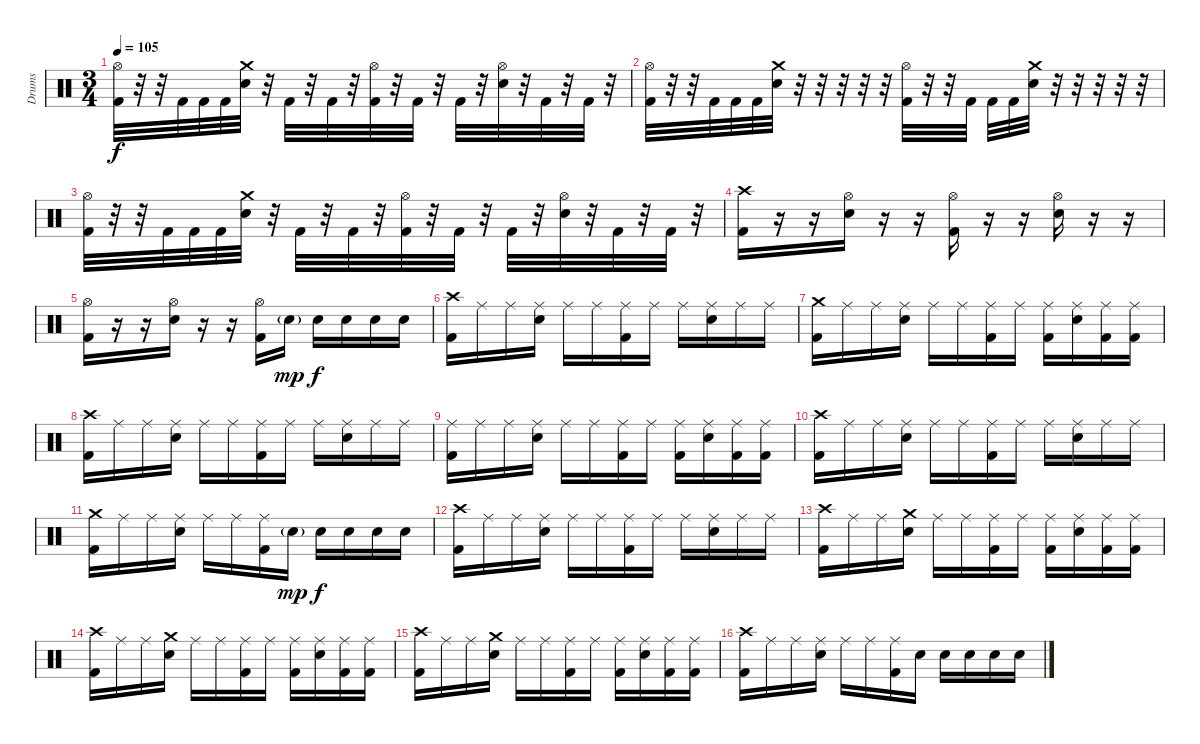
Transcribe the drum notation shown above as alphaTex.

\track ("Drums" "Drums") {instrument percussion}
\staff {score}
\articulation defaults
\ts (3 4)
\tempo 105
\clef neutral
\ks c
("Hi-Hat (open)" "Kick (hit) 2").32{dy f} r.32 r.32 "Kick (hit) 2".32 "Kick (hit) 2".32 "Kick (hit) 2".32 ("Crash medium (hit)" "Snare (hit) 2").32 r.32 "Kick (hit) 2".32 r.32 "Kick (hit) 2".32 r.32 ("Hi-Hat (open)" "Kick (hit) 2").32 r.32 "Kick (hit) 2".32 r.32 "Kick (hit) 2".32 r.32 ("Hi-Hat (open)" "Snare (hit) 2").32 r.32 "Kick (hit) 2".32 r.32 "Kick (hit) 2".32 r.32 |
("Hi-Hat (open)" "Kick (hit) 2").32 r.32 r.32 "Kick (hit) 2".32 "Kick (hit) 2".32 "Kick (hit) 2".32 ("Crash medium (hit)" "Snare (hit) 2").32 r.32 r.32 r.32 r.32 r.32 ("Hi-Hat (open)" "Kick (hit) 2").32 r.32 r.32 "Kick (hit) 2".32 "Kick (hit) 2".32 "Kick (hit) 2".32 ("Crash medium (hit)" "Snare (hit) 2").32 r.32 r.32 r.32 r.32 r.32 |
("Hi-Hat (open)" "Kick (hit) 2").32 r.32 r.32 "Kick (hit) 2".32 "Kick (hit) 2".32 "Kick (hit) 2".32 ("Crash medium (hit)" "Snare (hit) 2").32 r.32 "Kick (hit) 2".32 r.32 "Kick (hit) 2".32 r.32 ("Hi-Hat (open)" "Kick (hit) 2").32 r.32 "Kick (hit) 2".32 r.32 "Kick (hit) 2".32 r.32 ("Hi-Hat (open)" "Snare (hit) 2").32 r.32 "Kick (hit) 2".32 r.32 "Kick (hit) 2".32 r.32 |
("Crash high (hit)" "Kick (hit) 2").16 r.16 r.16 ("Hi-Hat (open)" "Snare (hit) 2").16 r.16 r.16 ("Hi-Hat (open)" "Kick (hit) 2").16 r.16 r.16 ("Hi-Hat (open)" "Snare (hit) 2").16 r.16 r.16 |
("Hi-Hat (open)" "Kick (hit) 2").16 r.16 r.16 ("Hi-Hat (open)" "Snare (hit) 2").16 r.16 r.16 ("Hi-Hat (open)" "Kick (hit) 2").16 "Snare (hit) 2"{g}.16{dy mp} "Snare (hit) 2".16{dy f} "Snare (hit) 2".16 "Snare (hit) 2".16 "Snare (hit) 2".16 |
("Crash high (hit)" "Kick (hit) 2").16 "Ride (middle)".16 "Ride (middle)".16 ("Ride (middle)" "Snare (hit) 2").16 "Ride (middle)".16 "Ride (middle)".16 ("Ride (middle)" "Kick (hit) 2").16 "Ride (middle)".16 "Ride (middle)".16 ("Ride (middle)" "Snare (hit) 2").16 "Ride (middle)".16 "Ride (middle)".16 |
("Crash medium (hit)" "Kick (hit) 2").16 "Ride (middle)".16 "Ride (middle)".16 ("Ride (middle)" "Snare (hit) 2").16 "Ride (middle)".16 "Ride (middle)".16 ("Ride (middle)" "Kick (hit) 2").16 "Ride (middle)".16 ("Ride (middle)" "Kick (hit) 2").16 ("Ride (middle)" "Snare (hit) 2").16 ("Ride (middle)" "Kick (hit) 2").16 ("Ride (middle)" "Kick (hit) 2").16 |
("Crash high (hit)" "Kick (hit) 2").16 "Ride (middle)".16 "Ride (middle)".16 ("Ride (middle)" "Snare (hit) 2").16 "Ride (middle)".16 "Ride (middle)".16 ("Ride (middle)" "Kick (hit) 2").16 "Ride (middle)".16 "Ride (middle)".16 ("Ride (middle)" "Snare (hit) 2").16 "Ride (middle)".16 "Ride (middle)".16 |
("Ride (middle)" "Kick (hit) 2").16 "Ride (middle)".16 "Ride (middle)".16 ("Ride (middle)" "Snare (hit) 2").16 "Ride (middle)".16 "Ride (middle)".16 ("Ride (middle)" "Kick (hit) 2").16 "Ride (middle)".16 ("Ride (middle)" "Kick (hit) 2").16 ("Ride (middle)" "Snare (hit) 2").16 ("Ride (middle)" "Kick (hit) 2").16 ("Ride (middle)" "Kick (hit) 2").16 |
("Crash high (hit)" "Kick (hit) 2").16 "Ride (middle)".16 "Ride (middle)".16 ("Ride (middle)" "Snare (hit) 2").16 "Ride (middle)".16 "Ride (middle)".16 ("Ride (middle)" "Kick (hit) 2").16 "Ride (middle)".16 "Ride (middle)".16 ("Ride (middle)" "Snare (hit) 2").16 "Ride (middle)".16 "Ride (middle)".16 |
("Crash medium (hit)" "Kick (hit) 2").16 "Ride (middle)".16 "Ride (middle)".16 ("Ride (middle)" "Snare (hit) 2").16 "Ride (middle)".16 "Ride (middle)".16 ("Ride (middle)" "Kick (hit) 2").16 "Snare (hit) 2"{g}.16{dy mp} "Snare (hit) 2".16{dy f} "Snare (hit) 2".16 "Snare (hit) 2".16 "Snare (hit) 2".16 |
("Crash high (hit)" "Kick (hit) 2").16 "Ride (middle)".16 "Ride (middle)".16 ("Ride (middle)" "Snare (hit) 2").16 "Ride (middle)".16 "Ride (middle)".16 ("Ride (middle)" "Kick (hit) 2").16 "Ride (middle)".16 "Ride (middle)".16 ("Ride (middle)" "Snare (hit) 2").16 "Ride (middle)".16 "Ride (middle)".16 |
("Crash high (hit)" "Kick (hit) 2").16 "Ride (middle)".16 "Ride (middle)".16 ("Crash medium (hit)" "Snare (hit) 2").16 "Ride (middle)".16 "Ride (middle)".16 ("Ride (middle)" "Kick (hit) 2").16 "Ride (middle)".16 ("Ride (middle)" "Kick (hit) 2").16 ("Ride (middle)" "Snare (hit) 2").16 ("Ride (middle)" "Kick (hit) 2").16 ("Ride (middle)" "Kick (hit) 2").16 |
("Crash high (hit)" "Kick (hit) 2").16 "Ride (middle)".16 "Ride (middle)".16 ("Crash medium (hit)" "Snare (hit) 2").16 "Ride (middle)".16 "Ride (middle)".16 ("Ride (middle)" "Kick (hit) 2").16 "Ride (middle)".16 ("Ride (middle)" "Kick (hit) 2").16 ("Ride (middle)" "Snare (hit) 2").16 ("Ride (middle)" "Kick (hit) 2").16 ("Ride (middle)" "Kick (hit) 2").16 |
("Crash high (hit)" "Kick (hit) 2").16 "Ride (middle)".16 "Ride (middle)".16 ("Crash medium (hit)" "Snare (hit) 2").16 "Ride (middle)".16 "Ride (middle)".16 ("Ride (middle)" "Kick (hit) 2").16 "Ride (middle)".16 ("Ride (middle)" "Kick (hit) 2").16 ("Ride (middle)" "Snare (hit) 2").16 ("Ride (middle)" "Kick (hit) 2").16 ("Ride (middle)" "Kick (hit) 2").16 |
("Crash high (hit)" "Kick (hit) 2").16 "Ride (middle)".16 "Ride (middle)".16 ("Ride (middle)" "Snare (hit) 2").16 "Ride (middle)".16 "Ride (middle)".16 ("Ride (middle)" "Kick (hit) 2").16 "Snare (hit) 2".16 "Snare (hit) 2".16 "Snare (hit) 2".16 "Snare (hit) 2".16 "Snare (hit) 2".16
